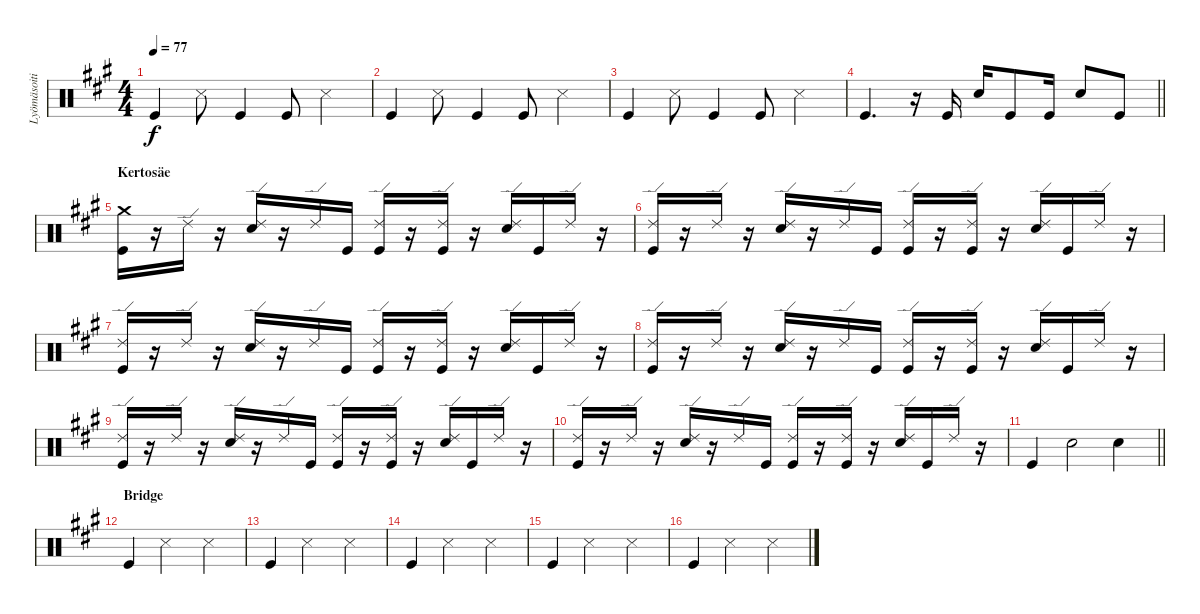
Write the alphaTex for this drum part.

\track ("Lyömäsoitin" "Lyömäsoiti") {instrument percussion}
\staff {score}
\articulation defaults
\ts (4 4)
\tempo 77
\clef neutral
\ks a "Kick (hit)".4{dy f} "Snare (side stick) 3".8 "Kick (hit)".4 "Kick (hit)".8 "Snare (side stick) 3".4
|
"Kick (hit)".4 "Snare (side stick) 3".8 "Kick (hit)".4 "Kick (hit)".8 "Snare (side stick) 3".4 |
"Kick (hit)".4 "Snare (side stick) 3".8 "Kick (hit)".4 "Kick (hit)".8 "Snare (side stick) 3".4 |
\barLineRight lightlight "Kick (hit)".4{d}
r.16 "Kick (hit)".16 "Snare (hit) 2".16 "Kick (hit)".8 "Kick (hit)".16 "Snare (hit) 2".8 "Kick (hit)".8 |
\section ("" "Kertosäe")
("Crash medium (hit)" "Kick (hit)").16 r.16 "Ride (edge) 2".16 r.16 ("Ride (edge) 2" "Snare (hit) 2").16 r.16 "Ride (edge) 2".16 "Kick (hit)".16 ("Ride (edge) 2" "Kick (hit)").16 r.16 ("Ride (edge) 2" "Kick (hit)").16 r.16 ("Ride (edge) 2" "Snare (hit) 2").16 "Kick (hit)".16 "Ride (edge) 2".16 r.16 |
("Ride (edge) 2" "Kick (hit)").16 r.16 "Ride (edge) 2".16 r.16 ("Ride (edge) 2" "Snare (hit) 2").16 r.16 "Ride (edge) 2".16 "Kick (hit)".16 ("Ride (edge) 2" "Kick (hit)").16 r.16 ("Ride (edge) 2" "Kick (hit)").16 r.16 ("Ride (edge) 2" "Snare (hit) 2").16 "Kick (hit)".16 "Ride (edge) 2".16 r.16 |
("Ride (edge) 2" "Kick (hit)").16 r.16 "Ride (edge) 2".16 r.16 ("Ride (edge) 2" "Snare (hit) 2").16 r.16 "Ride (edge) 2".16 "Kick (hit)".16 ("Ride (edge) 2" "Kick (hit)").16 r.16 ("Ride (edge) 2" "Kick (hit)").16 r.16 ("Ride (edge) 2" "Snare (hit) 2").16 "Kick (hit)".16 "Ride (edge) 2".16 r.16 |
("Ride (edge) 2" "Kick (hit)").16 r.16 "Ride (edge) 2".16 r.16 ("Ride (edge) 2" "Snare (hit) 2").16 r.16 "Ride (edge) 2".16 "Kick (hit)".16 ("Ride (edge) 2" "Kick (hit)").16 r.16 ("Ride (edge) 2" "Kick (hit)").16 r.16 ("Ride (edge) 2" "Snare (hit) 2").16 "Kick (hit)".16 "Ride (edge) 2".16 r.16 |
("Ride (edge) 2" "Kick (hit)").16 r.16 "Ride (edge) 2".16 r.16 ("Ride (edge) 2" "Snare (hit) 2").16 r.16 "Ride (edge) 2".16 "Kick (hit)".16 ("Ride (edge) 2" "Kick (hit)").16 r.16 ("Ride (edge) 2" "Kick (hit)").16 r.16 ("Ride (edge) 2" "Snare (hit) 2").16 "Kick (hit)".16 "Ride (edge) 2".16 r.16 |
("Ride (edge) 2" "Kick (hit)").16 r.16 "Ride (edge) 2".16 r.16 ("Ride (edge) 2" "Snare (hit) 2").16 r.16 "Ride (edge) 2".16 "Kick (hit)".16 ("Ride (edge) 2" "Kick (hit)").16 r.16 ("Ride (edge) 2" "Kick (hit)").16 r.16 ("Ride (edge) 2" "Snare (hit) 2").16 "Kick (hit)".16 "Ride (edge) 2".16 r.16 |
\barLineRight lightlight "Kick (hit)".4 "Snare (hit) 2".2 "Snare (hit) 2".4
|
\section ("" "Bridge")
"Kick (hit)".4 "Snare (side stick) 3".2 "Snare (side stick) 3".4 |
"Kick (hit)".4 "Snare (side stick) 3".2 "Snare (side stick) 3".4 |
"Kick (hit)".4 "Snare (side stick) 3".2 "Snare (side stick) 3".4 |
"Kick (hit)".4 "Snare (side stick) 3".2 "Snare (side stick) 3".4 |
"Kick (hit)".4 "Snare (side stick) 3".2 "Snare (side stick) 3".4
